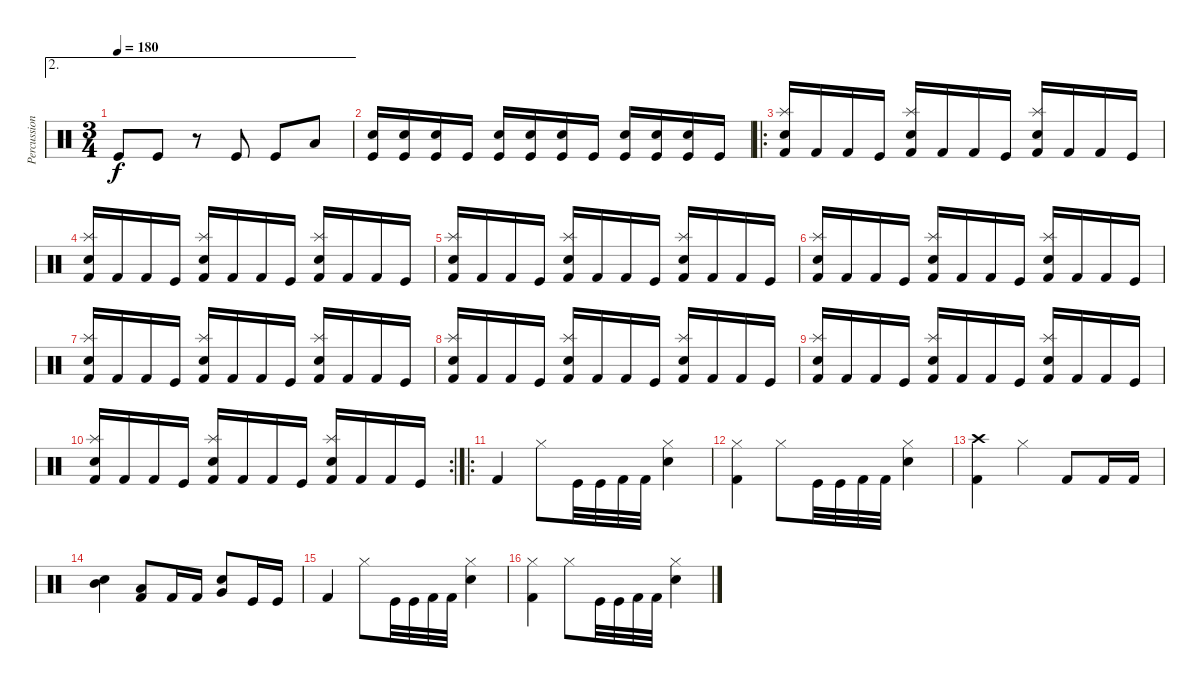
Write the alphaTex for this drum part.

\track ("Percussion" "Percussion") {instrument percussion}
\staff {score}
\articulation defaults
\ae 2
\ts (3 4)
\tempo 180
\clef neutral
\ks c "Kick (hit)".8{dy f} "Kick (hit)".8
r.8 "Kick (hit)".8 "Kick (hit)".8 "Low Floor Tom (hit)".8 |
("Kick (hit)" "Snare (hit) 2").16 ("Kick (hit)" "Snare (hit) 2").16 ("Kick (hit)" "Snare (hit) 2").16 "Kick (hit)".16 ("Kick (hit)" "Snare (hit) 2").16 ("Kick (hit)" "Snare (hit) 2").16 ("Kick (hit)" "Snare (hit) 2").16 "Kick (hit)".16 ("Kick (hit)" "Snare (hit) 2").16 ("Kick (hit)" "Snare (hit) 2").16 ("Kick (hit)" "Snare (hit) 2").16 "Kick (hit)".16 |
\ro
("Splash (hit)" "Snare (hit) 2" "Kick (hit) 2").16 "Kick (hit) 2".16 "Kick (hit) 2".16 "Kick (hit)".16 ("Splash (hit)" "Snare (hit) 2" "Kick (hit) 2").16 "Kick (hit) 2".16 "Kick (hit) 2".16 "Kick (hit)".16 ("Splash (hit)" "Snare (hit) 2" "Kick (hit) 2").16 "Kick (hit) 2".16 "Kick (hit) 2".16 "Kick (hit)".16 |
("Splash (hit)" "Snare (hit) 2" "Kick (hit) 2").16 "Kick (hit) 2".16 "Kick (hit) 2".16 "Kick (hit)".16 ("Splash (hit)" "Snare (hit) 2" "Kick (hit) 2").16 "Kick (hit) 2".16 "Kick (hit) 2".16 "Kick (hit)".16 ("Splash (hit)" "Snare (hit) 2" "Kick (hit) 2").16 "Kick (hit) 2".16 "Kick (hit) 2".16 "Kick (hit)".16 |
("Splash (hit)" "Snare (hit) 2" "Kick (hit) 2").16 "Kick (hit) 2".16 "Kick (hit) 2".16 "Kick (hit)".16 ("Splash (hit)" "Snare (hit) 2" "Kick (hit) 2").16 "Kick (hit) 2".16 "Kick (hit) 2".16 "Kick (hit)".16 ("Splash (hit)" "Snare (hit) 2" "Kick (hit) 2").16 "Kick (hit) 2".16 "Kick (hit) 2".16 "Kick (hit)".16 |
("Splash (hit)" "Snare (hit) 2" "Kick (hit) 2").16 "Kick (hit) 2".16 "Kick (hit) 2".16 "Kick (hit)".16 ("Splash (hit)" "Snare (hit) 2" "Kick (hit) 2").16 "Kick (hit) 2".16 "Kick (hit) 2".16 "Kick (hit)".16 ("Splash (hit)" "Snare (hit) 2" "Kick (hit) 2").16 "Kick (hit) 2".16 "Kick (hit) 2".16 "Kick (hit)".16 |
("Splash (hit)" "Snare (hit) 2" "Kick (hit) 2").16 "Kick (hit) 2".16 "Kick (hit) 2".16 "Kick (hit)".16 ("Splash (hit)" "Snare (hit) 2" "Kick (hit) 2").16 "Kick (hit) 2".16 "Kick (hit) 2".16 "Kick (hit)".16 ("Splash (hit)" "Snare (hit) 2" "Kick (hit) 2").16 "Kick (hit) 2".16 "Kick (hit) 2".16 "Kick (hit)".16 |
("Splash (hit)" "Snare (hit) 2" "Kick (hit) 2").16 "Kick (hit) 2".16 "Kick (hit) 2".16 "Kick (hit)".16 ("Splash (hit)" "Snare (hit) 2" "Kick (hit) 2").16 "Kick (hit) 2".16 "Kick (hit) 2".16 "Kick (hit)".16 ("Splash (hit)" "Snare (hit) 2" "Kick (hit) 2").16 "Kick (hit) 2".16 "Kick (hit) 2".16 "Kick (hit)".16 |
("Splash (hit)" "Snare (hit) 2" "Kick (hit) 2").16 "Kick (hit) 2".16 "Kick (hit) 2".16 "Kick (hit)".16 ("Splash (hit)" "Snare (hit) 2" "Kick (hit) 2").16 "Kick (hit) 2".16 "Kick (hit) 2".16 "Kick (hit)".16 ("Splash (hit)" "Snare (hit) 2" "Kick (hit) 2").16 "Kick (hit) 2".16 "Kick (hit) 2".16 "Kick (hit)".16 |
\rc 2
("Splash (hit)" "Snare (hit) 2" "Kick (hit) 2").16 "Kick (hit) 2".16 "Kick (hit) 2".16 "Kick (hit)".16 ("Splash (hit)" "Snare (hit) 2" "Kick (hit) 2").16 "Kick (hit) 2".16 "Kick (hit) 2".16 "Kick (hit)".16 ("Splash (hit)" "Snare (hit) 2" "Kick (hit) 2").16 "Kick (hit) 2".16 "Kick (hit) 2".16 "Kick (hit)".16 |
\ro "Kick (hit) 2".4 "Hi-Hat (closed)".8 "Kick (hit)".32 "Kick (hit)".32 "Kick (hit) 2".32 "Kick (hit) 2".32
("Hi-Hat (closed)" "Snare (hit) 2").4 |
("Hi-Hat (closed)" "Kick (hit) 2").4 "Hi-Hat (closed)".8 "Kick (hit)".32 "Kick (hit)".32 "Kick (hit) 2".32 "Kick (hit) 2".32 ("Hi-Hat (closed)" "Snare (hit) 2").4 |
("Crash high (hit)" "Kick (hit) 2").4 "Hi-Hat (closed)".4 "Kick (hit) 2".8 "Kick (hit) 2".16 "Kick (hit) 2".16 |
("Mid Tom (hit)" "Snare (hit) 2").4 ("Low Tom (hit)" "Kick (hit) 2").8 "Kick (hit) 2".16 "Kick (hit) 2".16 ("Very Low Tom (hit)" "Snare (hit) 2").8 "Kick (hit)".16 "Kick (hit)".16 |
"Kick (hit) 2".4 "Hi-Hat (closed)".8 "Kick (hit)".32 "Kick (hit)".32 "Kick (hit) 2".32 "Kick (hit) 2".32 ("Hi-Hat (closed)" "Snare (hit) 2").4 |
("Hi-Hat (closed)" "Kick (hit) 2").4 "Hi-Hat (closed)".8 "Kick (hit)".32 "Kick (hit)".32 "Kick (hit) 2".32 "Kick (hit) 2".32 ("Hi-Hat (closed)" "Snare (hit) 2").4
